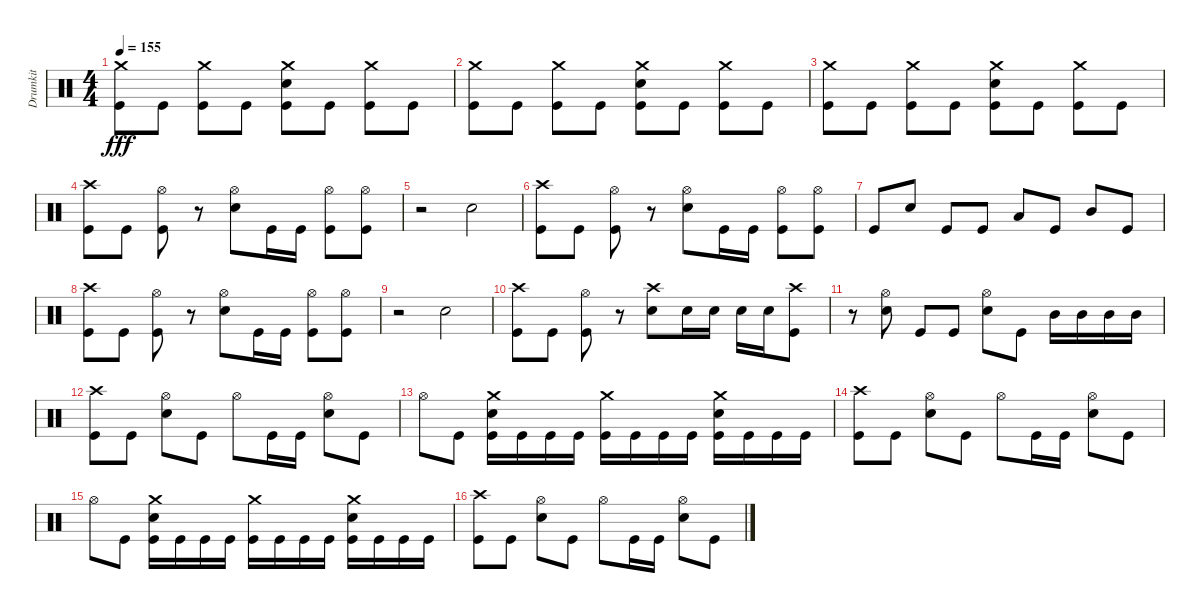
\track ("Drumkit" "Drumkit") {instrument percussion}
\staff {score}
\articulation defaults
\ts (4 4)
\tempo 155
\clef neutral
\ks c
("Crash medium (hit)" "Kick (hit)").8{dy fff} "Kick (hit)".8 ("Crash medium (hit)" "Kick (hit)").8 "Kick (hit)".8 ("Crash medium (hit)" "Snare (hit) 2" "Kick (hit)").8 "Kick (hit)".8 ("Crash medium (hit)" "Kick (hit)").8 "Kick (hit)".8 |
("Crash medium (hit)" "Kick (hit)").8 "Kick (hit)".8 ("Crash medium (hit)" "Kick (hit)").8 "Kick (hit)".8 ("Crash medium (hit)" "Snare (hit) 2" "Kick (hit)").8 "Kick (hit)".8 ("Crash medium (hit)" "Kick (hit)").8 "Kick (hit)".8 |
("Crash medium (hit)" "Kick (hit)").8 "Kick (hit)".8 ("Crash medium (hit)" "Kick (hit)").8 "Kick (hit)".8 ("Crash medium (hit)" "Snare (hit) 2" "Kick (hit)").8 "Kick (hit)".8 ("Crash medium (hit)" "Kick (hit)").8 "Kick (hit)".8 |
("Crash high (hit)" "Kick (hit)").8 "Kick (hit)".8 ("Hi-Hat (open)" "Kick (hit)").8 r.8 ("Hi-Hat (open)" "Snare (hit) 2").8 "Kick (hit)".16 "Kick (hit)".16 ("Hi-Hat (open)" "Kick (hit)").8 ("Hi-Hat (open)" "Kick (hit)").8 |
r.2 "Snare (hit) 2".2 |
("Crash high (hit)" "Kick (hit)").8 "Kick (hit)".8 ("Hi-Hat (open)" "Kick (hit)").8 r.8 ("Hi-Hat (open)" "Snare (hit) 2").8 "Kick (hit)".16 "Kick (hit)".16 ("Hi-Hat (open)" "Kick (hit)").8 ("Hi-Hat (open)" "Kick (hit)").8 |
"Kick (hit)".8 "Snare (hit) 2".8 "Kick (hit)".8 "Kick (hit)".8 "Low Tom (hit)".8 "Kick (hit)".8 "Mid Tom (hit)".8 "Kick (hit)".8 |
("Crash high (hit)" "Kick (hit)").8 "Kick (hit)".8 ("Hi-Hat (open)" "Kick (hit)").8 r.8 ("Hi-Hat (open)" "Snare (hit) 2").8 "Kick (hit)".16 "Kick (hit)".16 ("Hi-Hat (open)" "Kick (hit)").8 ("Hi-Hat (open)" "Kick (hit)").8 |
r.2 "Snare (hit) 2".2 |
("Crash high (hit)" "Kick (hit)").8 "Kick (hit)".8 ("Hi-Hat (open)" "Kick (hit)").8 r.8 ("Crash high (hit)" "Snare (hit) 2").8 "Snare (hit) 2".16 "Snare (hit) 2".16 "Snare (hit) 2".16 "Snare (hit) 2".16 ("Crash high (hit)" "Kick (hit)").8 |
r.8 ("Hi-Hat (open)" "Snare (hit) 2").8 "Kick (hit)".8 "Kick (hit)".8 ("Hi-Hat (open)" "Snare (hit) 2").8 "Kick (hit)".8 "Mid Tom (hit)".16 "Mid Tom (hit)".16 "Mid Tom (hit)".16 "Mid Tom (hit)".16 |
("Crash high (hit)" "Kick (hit)").8 "Kick (hit)".8 ("Hi-Hat (open)" "Snare (hit) 2").8 "Kick (hit)".8 "Hi-Hat (open)".8 "Kick (hit)".16 "Kick (hit)".16 ("Hi-Hat (open)" "Snare (hit) 2").8 "Kick (hit)".8 |
"Hi-Hat (open)".8 "Kick (hit)".8 ("Crash medium (hit)" "Snare (hit) 2" "Kick (hit)").16 "Kick (hit)".16 "Kick (hit)".16 "Kick (hit)".16 ("Crash medium (hit)" "Kick (hit)").16 "Kick (hit)".16 "Kick (hit)".16 "Kick (hit)".16 ("Crash medium (hit)" "Snare (hit) 2" "Kick (hit)").16 "Kick (hit)".16 "Kick (hit)".16 "Kick (hit)".16 |
("Crash high (hit)" "Kick (hit)").8 "Kick (hit)".8 ("Hi-Hat (open)" "Snare (hit) 2").8 "Kick (hit)".8 "Hi-Hat (open)".8 "Kick (hit)".16 "Kick (hit)".16 ("Hi-Hat (open)" "Snare (hit) 2").8 "Kick (hit)".8 |
"Hi-Hat (open)".8 "Kick (hit)".8 ("Crash medium (hit)" "Snare (hit) 2" "Kick (hit)").16 "Kick (hit)".16 "Kick (hit)".16 "Kick (hit)".16 ("Crash medium (hit)" "Kick (hit)").16 "Kick (hit)".16 "Kick (hit)".16 "Kick (hit)".16 ("Crash medium (hit)" "Snare (hit) 2" "Kick (hit)").16 "Kick (hit)".16 "Kick (hit)".16 "Kick (hit)".16 |
("Crash high (hit)" "Kick (hit)").8 "Kick (hit)".8 ("Hi-Hat (open)" "Snare (hit) 2").8 "Kick (hit)".8 "Hi-Hat (open)".8 "Kick (hit)".16 "Kick (hit)".16 ("Hi-Hat (open)" "Snare (hit) 2").8 "Kick (hit)".8
